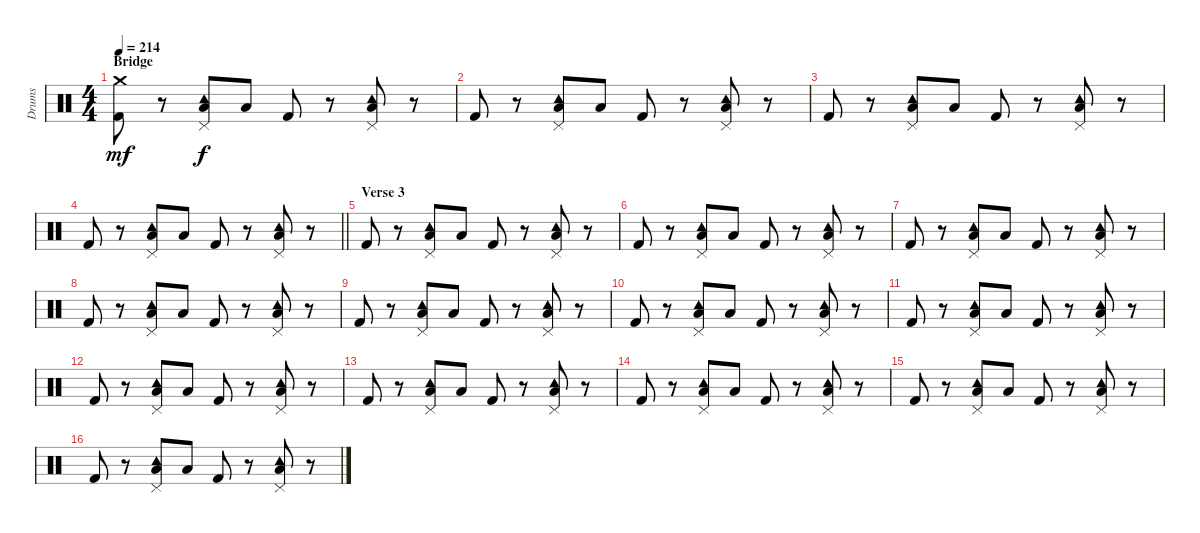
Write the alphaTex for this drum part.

\track ("Drums" "Drums") {instrument percussion}
\staff {score}
\articulation defaults
\ts (4 4)
\section ("" "Bridge")
\tempo 214
\clef neutral
\ks c
("Crash medium (hit)" "Kick (hit) 2").8{dy mf} r.8 ("Pedal Hi-Hat (hit)" "Tambourine (hit)" "Low Tom (hit)").8{dy f} "Low Tom (hit)".8 "Kick (hit) 2".8 r.8 ("Pedal Hi-Hat (hit)" "Tambourine (hit)" "Low Tom (hit)").8 r.8 |
"Kick (hit) 2".8 r.8 ("Pedal Hi-Hat (hit)" "Tambourine (hit)" "Low Tom (hit)").8 "Low Tom (hit)".8 "Kick (hit) 2".8 r.8 ("Pedal Hi-Hat (hit)" "Tambourine (hit)" "Low Tom (hit)").8 r.8 |
"Kick (hit) 2".8 r.8 ("Pedal Hi-Hat (hit)" "Tambourine (hit)" "Low Tom (hit)").8 "Low Tom (hit)".8 "Kick (hit) 2".8 r.8 ("Pedal Hi-Hat (hit)" "Tambourine (hit)" "Low Tom (hit)").8 r.8 |
\barLineRight lightlight "Kick (hit) 2".8
r.8 ("Pedal Hi-Hat (hit)" "Tambourine (hit)" "Low Tom (hit)").8 "Low Tom (hit)".8 "Kick (hit) 2".8 r.8 ("Pedal Hi-Hat (hit)" "Tambourine (hit)" "Low Tom (hit)").8 r.8 |
\section ("" "Verse 3")
"Kick (hit) 2".8 r.8 ("Pedal Hi-Hat (hit)" "Tambourine (hit)" "Low Tom (hit)").8 "Low Tom (hit)".8 "Kick (hit) 2".8 r.8 ("Pedal Hi-Hat (hit)" "Tambourine (hit)" "Low Tom (hit)").8 r.8 |
"Kick (hit) 2".8 r.8 ("Pedal Hi-Hat (hit)" "Tambourine (hit)" "Low Tom (hit)").8 "Low Tom (hit)".8 "Kick (hit) 2".8 r.8 ("Pedal Hi-Hat (hit)" "Tambourine (hit)" "Low Tom (hit)").8 r.8 |
"Kick (hit) 2".8 r.8 ("Pedal Hi-Hat (hit)" "Tambourine (hit)" "Low Tom (hit)").8 "Low Tom (hit)".8 "Kick (hit) 2".8 r.8 ("Pedal Hi-Hat (hit)" "Tambourine (hit)" "Low Tom (hit)").8 r.8 |
"Kick (hit) 2".8 r.8 ("Pedal Hi-Hat (hit)" "Tambourine (hit)" "Low Tom (hit)").8 "Low Tom (hit)".8 "Kick (hit) 2".8 r.8 ("Pedal Hi-Hat (hit)" "Tambourine (hit)" "Low Tom (hit)").8 r.8 |
"Kick (hit) 2".8 r.8 ("Pedal Hi-Hat (hit)" "Tambourine (hit)" "Low Tom (hit)").8 "Low Tom (hit)".8 "Kick (hit) 2".8 r.8 ("Pedal Hi-Hat (hit)" "Tambourine (hit)" "Low Tom (hit)").8 r.8 |
"Kick (hit) 2".8 r.8 ("Pedal Hi-Hat (hit)" "Tambourine (hit)" "Low Tom (hit)").8 "Low Tom (hit)".8 "Kick (hit) 2".8 r.8 ("Pedal Hi-Hat (hit)" "Tambourine (hit)" "Low Tom (hit)").8 r.8 |
"Kick (hit) 2".8 r.8 ("Pedal Hi-Hat (hit)" "Tambourine (hit)" "Low Tom (hit)").8 "Low Tom (hit)".8 "Kick (hit) 2".8 r.8 ("Pedal Hi-Hat (hit)" "Tambourine (hit)" "Low Tom (hit)").8 r.8 |
"Kick (hit) 2".8 r.8 ("Pedal Hi-Hat (hit)" "Tambourine (hit)" "Low Tom (hit)").8 "Low Tom (hit)".8 "Kick (hit) 2".8 r.8 ("Pedal Hi-Hat (hit)" "Tambourine (hit)" "Low Tom (hit)").8 r.8 |
"Kick (hit) 2".8 r.8 ("Pedal Hi-Hat (hit)" "Tambourine (hit)" "Low Tom (hit)").8 "Low Tom (hit)".8 "Kick (hit) 2".8 r.8 ("Pedal Hi-Hat (hit)" "Tambourine (hit)" "Low Tom (hit)").8 r.8 |
"Kick (hit) 2".8 r.8 ("Pedal Hi-Hat (hit)" "Tambourine (hit)" "Low Tom (hit)").8 "Low Tom (hit)".8 "Kick (hit) 2".8 r.8 ("Pedal Hi-Hat (hit)" "Tambourine (hit)" "Low Tom (hit)").8 r.8 |
"Kick (hit) 2".8 r.8 ("Pedal Hi-Hat (hit)" "Tambourine (hit)" "Low Tom (hit)").8 "Low Tom (hit)".8 "Kick (hit) 2".8 r.8 ("Pedal Hi-Hat (hit)" "Tambourine (hit)" "Low Tom (hit)").8 r.8 |
"Kick (hit) 2".8 r.8 ("Pedal Hi-Hat (hit)" "Tambourine (hit)" "Low Tom (hit)").8 "Low Tom (hit)".8 "Kick (hit) 2".8 r.8 ("Pedal Hi-Hat (hit)" "Tambourine (hit)" "Low Tom (hit)").8 r.8
